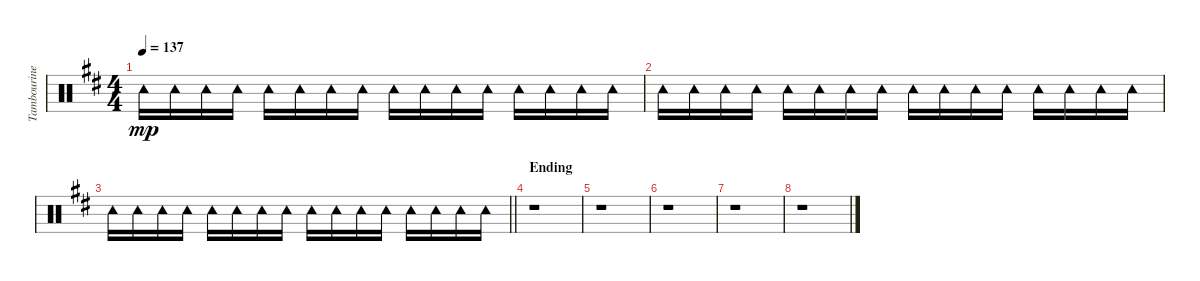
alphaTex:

\track ("Tambourine" "Tambourine") {instrument percussion}
\staff {score}
\articulation defaults
\ts (4 4)
\tempo 137
\clef neutral
\ks d "Tambourine (hit)".16{dy mp} "Tambourine (hit)".16 "Tambourine (hit)".16 "Tambourine (hit)".16 "Tambourine (hit)".16 "Tambourine (hit)".16 "Tambourine (hit)".16 "Tambourine (hit)".16 "Tambourine (hit)".16 "Tambourine (hit)".16 "Tambourine (hit)".16 "Tambourine (hit)".16 "Tambourine (hit)".16 "Tambourine (hit)".16 "Tambourine (hit)".16 "Tambourine (hit)".16
|
"Tambourine (hit)".16 "Tambourine (hit)".16 "Tambourine (hit)".16 "Tambourine (hit)".16 "Tambourine (hit)".16 "Tambourine (hit)".16 "Tambourine (hit)".16 "Tambourine (hit)".16 "Tambourine (hit)".16 "Tambourine (hit)".16 "Tambourine (hit)".16 "Tambourine (hit)".16 "Tambourine (hit)".16 "Tambourine (hit)".16 "Tambourine (hit)".16 "Tambourine (hit)".16 |
\barLineRight lightlight "Tambourine (hit)".16 "Tambourine (hit)".16 "Tambourine (hit)".16 "Tambourine (hit)".16 "Tambourine (hit)".16 "Tambourine (hit)".16 "Tambourine (hit)".16 "Tambourine (hit)".16 "Tambourine (hit)".16 "Tambourine (hit)".16 "Tambourine (hit)".16 "Tambourine (hit)".16 "Tambourine (hit)".16 "Tambourine (hit)".16 "Tambourine (hit)".16 "Tambourine (hit)".16
|
\section ("" "Ending")
r.1 |
r.1 |
r.1 |
r.1 |
r.1
